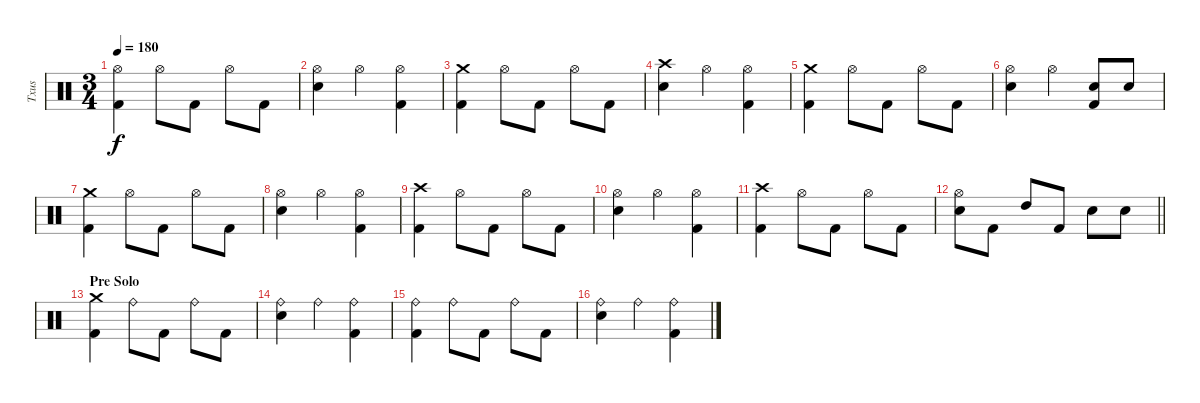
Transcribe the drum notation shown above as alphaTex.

\track ("Txus" "Txus") {instrument percussion}
\staff {score}
\articulation defaults
\ts (3 4)
\tempo 180
\clef neutral
\ks c
("Hi-Hat (open)" "Kick (hit) 2").4{dy f} "Hi-Hat (open)".8 "Kick (hit) 2".8 "Hi-Hat (open)".8 "Kick (hit) 2".8 |
("Hi-Hat (open)" "Snare (hit) 2").4 "Hi-Hat (open)".4 ("Hi-Hat (open)" "Kick (hit) 2").4 |
("Crash medium (hit)" "Kick (hit) 2").4 "Hi-Hat (open)".8 "Kick (hit) 2".8 "Hi-Hat (open)".8 "Kick (hit) 2".8 |
("Crash high (hit)" "Snare (hit) 2").4 "Hi-Hat (open)".4 ("Hi-Hat (open)" "Kick (hit) 2").4 |
("Crash medium (hit)" "Kick (hit) 2").4 "Hi-Hat (open)".8 "Kick (hit) 2".8 "Hi-Hat (open)".8 "Kick (hit) 2".8 |
("Hi-Hat (open)" "Snare (hit) 2").4 "Hi-Hat (open)".4 ("Snare (hit) 2" "Kick (hit) 2").8 "Snare (hit) 2".8 |
("Crash medium (hit)" "Kick (hit) 2").4 "Hi-Hat (open)".8 "Kick (hit) 2".8 "Hi-Hat (open)".8 "Kick (hit) 2".8 |
("Hi-Hat (open)" "Snare (hit) 2").4 "Hi-Hat (open)".4 ("Hi-Hat (open)" "Kick (hit) 2").4 |
("Crash high (hit)" "Kick (hit) 2").4 "Hi-Hat (open)".8 "Kick (hit) 2".8 "Hi-Hat (open)".8 "Kick (hit) 2".8 |
("Hi-Hat (open)" "Snare (hit) 2").4 "Hi-Hat (open)".4 ("Hi-Hat (open)" "Kick (hit) 2").4 |
("Crash high (hit)" "Kick (hit) 2").4 "Hi-Hat (open)".8 "Kick (hit) 2".8 "Hi-Hat (open)".8 "Kick (hit) 2".8 |
\barLineRight lightlight
("Hi-Hat (open)" "Snare (hit) 2").8 "Kick (hit) 2".8 "High Tom (hit)".8 "Kick (hit) 2".8 "Snare (hit) 2".8 "Snare (hit) 2".8 |
\section ("" "Pre Solo")
("Crash medium (hit)" "Kick (hit) 2").4 "Ride (bell)".8 "Kick (hit) 2".8 "Ride (bell)".8 "Kick (hit) 2".8 |
("Ride (bell)" "Snare (hit) 2").4 "Ride (bell)".4 ("Ride (bell)" "Kick (hit) 2").4 |
("Ride (bell)" "Kick (hit) 2").4 "Ride (bell)".8 "Kick (hit) 2".8 "Ride (bell)".8 "Kick (hit) 2".8 |
("Ride (bell)" "Snare (hit) 2").4 "Ride (bell)".4 ("Ride (bell)" "Kick (hit) 2").4
